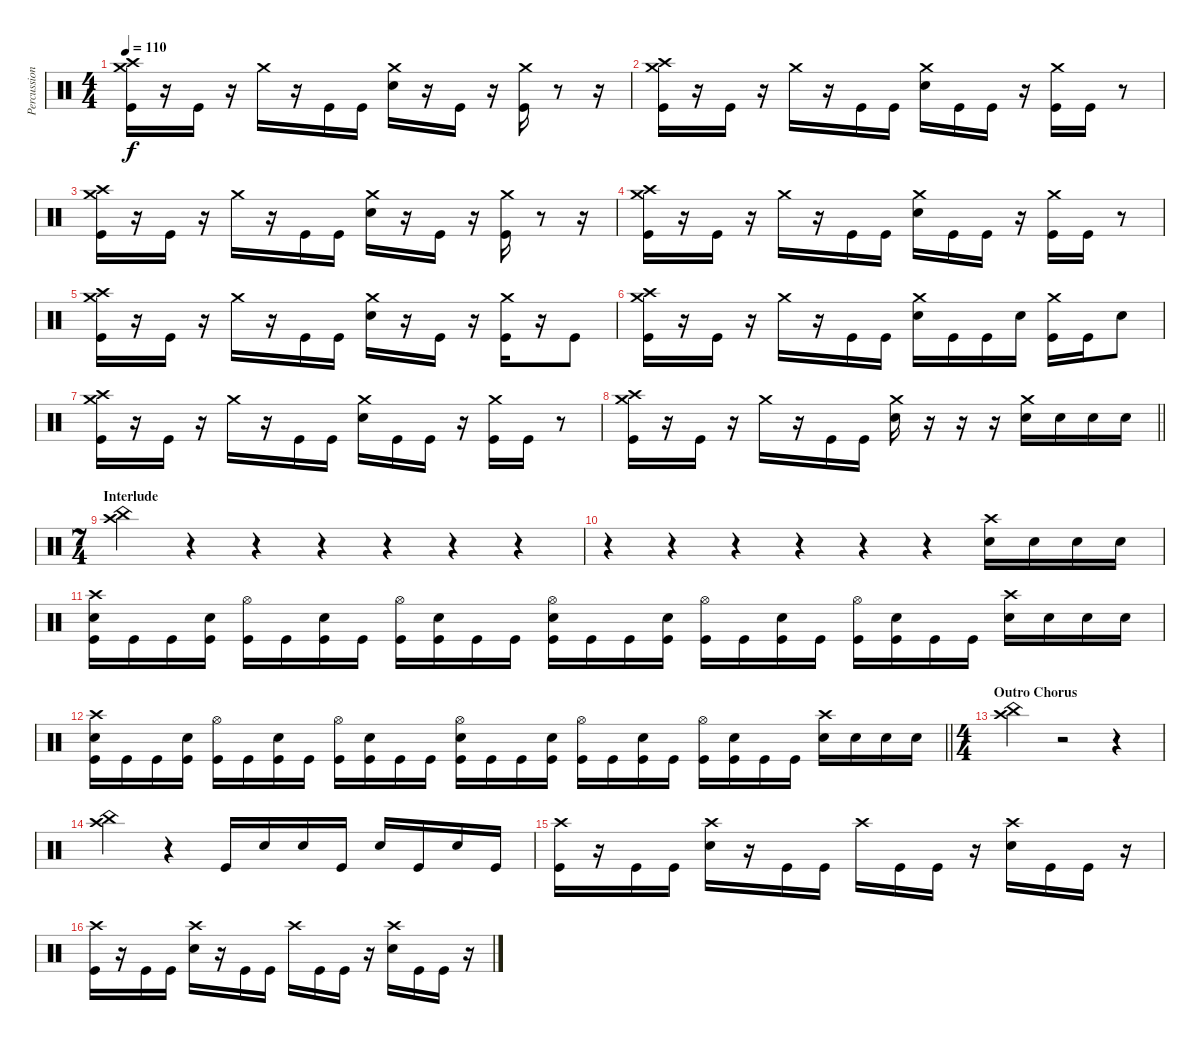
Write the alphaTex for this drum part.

\track ("Percussion" "Percussion") {instrument percussion}
\staff {score}
\articulation defaults
\ts (4 4)
\tempo 110
\clef neutral
\ks c
("Crash medium (hit)" "Crash high (hit)" "Kick (hit)").16{dy f} r.16 "Kick (hit)".16 r.16 "Crash medium (hit)".16 r.16 "Kick (hit)".16 "Kick (hit)".16 ("Crash medium (hit)" "Snare (hit) 2").16 r.16 "Kick (hit)".16 r.16 ("Crash medium (hit)" "Kick (hit)").16 r.8 r.16 |
("Crash medium (hit)" "Crash high (hit)" "Kick (hit)").16 r.16 "Kick (hit)".16 r.16 "Crash medium (hit)".16 r.16 "Kick (hit)".16 "Kick (hit)".16 ("Crash medium (hit)" "Snare (hit) 2").16 "Kick (hit)".16 "Kick (hit)".16 r.16 ("Crash medium (hit)" "Kick (hit)").16 "Kick (hit)".16 r.8 |
("Crash medium (hit)" "Crash high (hit)" "Kick (hit)").16 r.16 "Kick (hit)".16 r.16 "Crash medium (hit)".16 r.16 "Kick (hit)".16 "Kick (hit)".16 ("Crash medium (hit)" "Snare (hit) 2").16 r.16 "Kick (hit)".16 r.16 ("Crash medium (hit)" "Kick (hit)").16 r.8 r.16 |
("Crash medium (hit)" "Crash high (hit)" "Kick (hit)").16 r.16 "Kick (hit)".16 r.16 "Crash medium (hit)".16 r.16 "Kick (hit)".16 "Kick (hit)".16 ("Crash medium (hit)" "Snare (hit) 2").16 "Kick (hit)".16 "Kick (hit)".16 r.16 ("Crash medium (hit)" "Kick (hit)").16 "Kick (hit)".16 r.8 |
("Crash medium (hit)" "Crash high (hit)" "Kick (hit)").16 r.16 "Kick (hit)".16 r.16 "Crash medium (hit)".16 r.16 "Kick (hit)".16 "Kick (hit)".16 ("Crash medium (hit)" "Snare (hit) 2").16 r.16 "Kick (hit)".16 r.16 ("Crash medium (hit)" "Kick (hit)").16 r.16 "Kick (hit)".8 |
("Crash medium (hit)" "Crash high (hit)" "Kick (hit)").16 r.16 "Kick (hit)".16 r.16 "Crash medium (hit)".16 r.16 "Kick (hit)".16 "Kick (hit)".16 ("Crash medium (hit)" "Snare (hit) 2").16 "Kick (hit)".16 "Kick (hit)".16 "Snare (hit) 2".16 ("Crash medium (hit)" "Kick (hit)").16 "Kick (hit)".16 "Snare (hit) 2".8 |
("Crash medium (hit)" "Crash high (hit)" "Kick (hit)").16 r.16 "Kick (hit)".16 r.16 "Crash medium (hit)".16 r.16 "Kick (hit)".16 "Kick (hit)".16 ("Crash medium (hit)" "Snare (hit) 2").16 "Kick (hit)".16 "Kick (hit)".16 r.16 ("Crash medium (hit)" "Kick (hit)").16 "Kick (hit)".16 r.8 |
\barLineRight lightlight
("Crash medium (hit)" "Crash high (hit)" "Kick (hit)").16 r.16 "Kick (hit)".16 r.16 "Crash medium (hit)".16 r.16 "Kick (hit)".16 "Kick (hit)".16 ("Crash medium (hit)" "Snare (hit) 2").16 r.16 r.16 r.16 ("Crash medium (hit)" "Snare (hit) 2").16 "Snare (hit) 2".16 "Snare (hit) 2".16 "Snare (hit) 2".16 |
\ts (7 4)
\section ("" "Interlude")
("China (hit)" "Crash high (hit)").4 r.4 r.4 r.4 r.4 r.4 r.4 |
r.4 r.4 r.4 r.4 r.4 r.4 ("Crash high (hit)" "Snare (hit) 2").16 "Snare (hit) 2".16 "Snare (hit) 2".16 "Snare (hit) 2".16 |
("Crash high (hit)" "Snare (hit) 2" "Kick (hit)").16 "Kick (hit)".16 "Kick (hit)".16 ("Snare (hit) 2" "Kick (hit)").16 ("Hi-Hat (open)" "Kick (hit)").16 "Kick (hit)".16 ("Snare (hit) 2" "Kick (hit)").16 "Kick (hit)".16 ("Hi-Hat (open)" "Kick (hit)").16 ("Snare (hit) 2" "Kick (hit)").16 "Kick (hit)".16 "Kick (hit)".16 ("Hi-Hat (open)" "Snare (hit) 2" "Kick (hit)").16 "Kick (hit)".16 "Kick (hit)".16 ("Snare (hit) 2" "Kick (hit)").16 ("Hi-Hat (open)" "Kick (hit)").16 "Kick (hit)".16 ("Snare (hit) 2" "Kick (hit)").16 "Kick (hit)".16 ("Hi-Hat (open)" "Kick (hit)").16 ("Snare (hit) 2" "Kick (hit)").16 "Kick (hit)".16 "Kick (hit)".16 ("Crash high (hit)" "Snare (hit) 2").16 "Snare (hit) 2".16 "Snare (hit) 2".16 "Snare (hit) 2".16 |
\barLineRight lightlight
("Crash high (hit)" "Snare (hit) 2" "Kick (hit)").16 "Kick (hit)".16 "Kick (hit)".16 ("Snare (hit) 2" "Kick (hit)").16 ("Hi-Hat (open)" "Kick (hit)").16 "Kick (hit)".16 ("Snare (hit) 2" "Kick (hit)").16 "Kick (hit)".16 ("Hi-Hat (open)" "Kick (hit)").16 ("Snare (hit) 2" "Kick (hit)").16 "Kick (hit)".16 "Kick (hit)".16 ("Hi-Hat (open)" "Snare (hit) 2" "Kick (hit)").16 "Kick (hit)".16 "Kick (hit)".16 ("Snare (hit) 2" "Kick (hit)").16 ("Hi-Hat (open)" "Kick (hit)").16 "Kick (hit)".16 ("Snare (hit) 2" "Kick (hit)").16 "Kick (hit)".16 ("Hi-Hat (open)" "Kick (hit)").16 ("Snare (hit) 2" "Kick (hit)").16 "Kick (hit)".16 "Kick (hit)".16 ("Crash high (hit)" "Snare (hit) 2").16 "Snare (hit) 2".16 "Snare (hit) 2".16 "Snare (hit) 2".16 |
\ts (4 4)
\section ("" "Outro Chorus")
("China (hit)" "Crash high (hit)").4 r.2 r.4 |
("Crash high (hit)" "China (hit)").4 r.4 "Kick (hit)".16 "Snare (hit) 2".16 "Snare (hit) 2".16 "Kick (hit)".16 "Snare (hit) 2".16 "Kick (hit)".16 "Snare (hit) 2".16 "Kick (hit)".16 |
("Crash high (hit)" "Kick (hit)").16 r.16 "Kick (hit)".16 "Kick (hit)".16 ("Crash high (hit)" "Snare (hit) 2").16 r.16 "Kick (hit)".16 "Kick (hit)".16 "Crash high (hit)".16 "Kick (hit)".16 "Kick (hit)".16 r.16 ("Crash high (hit)" "Snare (hit) 2").16 "Kick (hit)".16 "Kick (hit)".16 r.16 |
("Crash high (hit)" "Kick (hit)").16 r.16 "Kick (hit)".16 "Kick (hit)".16 ("Crash high (hit)" "Snare (hit) 2").16 r.16 "Kick (hit)".16 "Kick (hit)".16 "Crash high (hit)".16 "Kick (hit)".16 "Kick (hit)".16 r.16 ("Crash high (hit)" "Snare (hit) 2").16 "Kick (hit)".16 "Kick (hit)".16 r.16
